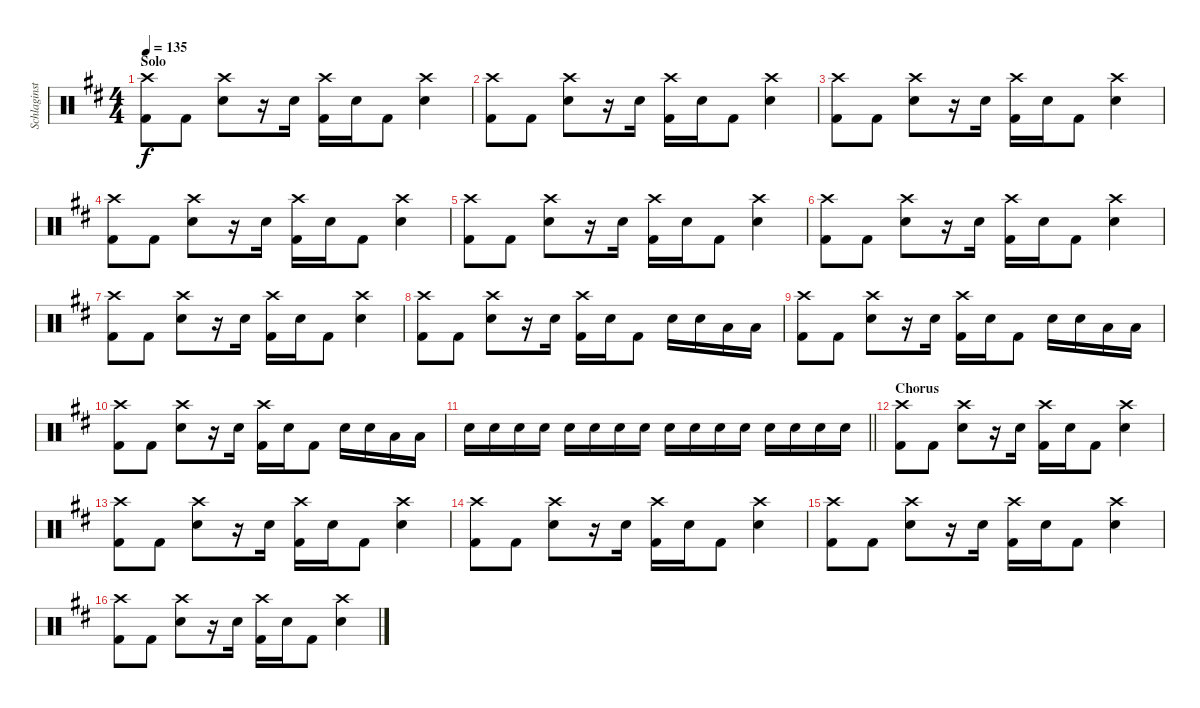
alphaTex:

\track ("Schlaginstrumente - Auswahl" "Schlaginst") {instrument percussion}
\staff {score}
\articulation defaults
\ts (4 4)
\section ("" "Solo")
\tempo 135
\clef neutral
\ks d
("Crash high (hit)" "Kick (hit) 2").8{dy f} "Kick (hit) 2".8 ("Crash high (hit)" "Snare (hit) 2").8 r.16 "Snare (hit) 2".16 ("Crash high (hit)" "Kick (hit) 2").16 "Snare (hit) 2".16 "Kick (hit) 2".8 ("Crash high (hit)" "Snare (hit) 2").4 |
("Crash high (hit)" "Kick (hit) 2").8 "Kick (hit) 2".8 ("Crash high (hit)" "Snare (hit) 2").8 r.16 "Snare (hit) 2".16 ("Crash high (hit)" "Kick (hit) 2").16 "Snare (hit) 2".16 "Kick (hit) 2".8 ("Crash high (hit)" "Snare (hit) 2").4 |
("Crash high (hit)" "Kick (hit) 2").8 "Kick (hit) 2".8 ("Crash high (hit)" "Snare (hit) 2").8 r.16 "Snare (hit) 2".16 ("Crash high (hit)" "Kick (hit) 2").16 "Snare (hit) 2".16 "Kick (hit) 2".8 ("Crash high (hit)" "Snare (hit) 2").4 |
("Crash high (hit)" "Kick (hit) 2").8 "Kick (hit) 2".8 ("Crash high (hit)" "Snare (hit) 2").8 r.16 "Snare (hit) 2".16 ("Crash high (hit)" "Kick (hit) 2").16 "Snare (hit) 2".16 "Kick (hit) 2".8 ("Crash high (hit)" "Snare (hit) 2").4 |
("Crash high (hit)" "Kick (hit) 2").8 "Kick (hit) 2".8 ("Crash high (hit)" "Snare (hit) 2").8 r.16 "Snare (hit) 2".16 ("Crash high (hit)" "Kick (hit) 2").16 "Snare (hit) 2".16 "Kick (hit) 2".8 ("Crash high (hit)" "Snare (hit) 2").4 |
("Crash high (hit)" "Kick (hit) 2").8 "Kick (hit) 2".8 ("Crash high (hit)" "Snare (hit) 2").8 r.16 "Snare (hit) 2".16 ("Crash high (hit)" "Kick (hit) 2").16 "Snare (hit) 2".16 "Kick (hit) 2".8 ("Crash high (hit)" "Snare (hit) 2").4 |
("Crash high (hit)" "Kick (hit) 2").8 "Kick (hit) 2".8 ("Crash high (hit)" "Snare (hit) 2").8 r.16 "Snare (hit) 2".16 ("Crash high (hit)" "Kick (hit) 2").16 "Snare (hit) 2".16 "Kick (hit) 2".8 ("Crash high (hit)" "Snare (hit) 2").4 |
("Crash high (hit)" "Kick (hit) 2").8 "Kick (hit) 2".8 ("Crash high (hit)" "Snare (hit) 2").8 r.16 "Snare (hit) 2".16 ("Crash high (hit)" "Kick (hit) 2").16 "Snare (hit) 2".16 "Kick (hit) 2".8 "Snare (hit) 2".16 "Snare (hit) 2".16 "Low Tom (hit)".16 "Low Tom (hit)".16 |
("Crash high (hit)" "Kick (hit) 2").8 "Kick (hit) 2".8 ("Crash high (hit)" "Snare (hit) 2").8 r.16 "Snare (hit) 2".16 ("Crash high (hit)" "Kick (hit) 2").16 "Snare (hit) 2".16 "Kick (hit) 2".8 "Snare (hit) 2".16 "Snare (hit) 2".16 "Low Tom (hit)".16 "Low Tom (hit)".16 |
("Crash high (hit)" "Kick (hit) 2").8 "Kick (hit) 2".8 ("Crash high (hit)" "Snare (hit) 2").8 r.16 "Snare (hit) 2".16 ("Crash high (hit)" "Kick (hit) 2").16 "Snare (hit) 2".16 "Kick (hit) 2".8 "Snare (hit) 2".16 "Snare (hit) 2".16 "Low Tom (hit)".16 "Low Tom (hit)".16 |
\barLineRight lightlight "Snare (hit) 2".16 "Snare (hit) 2".16 "Snare (hit) 2".16 "Snare (hit) 2".16 "Snare (hit) 2".16 "Snare (hit) 2".16 "Snare (hit) 2".16 "Snare (hit) 2".16 "Snare (hit) 2".16 "Snare (hit) 2".16 "Snare (hit) 2".16 "Snare (hit) 2".16 "Snare (hit) 2".16 "Snare (hit) 2".16 "Snare (hit) 2".16 "Snare (hit) 2".16
|
\section ("" "Chorus")
("Crash high (hit)" "Kick (hit) 2").8 "Kick (hit) 2".8 ("Crash high (hit)" "Snare (hit) 2").8 r.16 "Snare (hit) 2".16 ("Crash high (hit)" "Kick (hit) 2").16 "Snare (hit) 2".16 "Kick (hit) 2".8 ("Crash high (hit)" "Snare (hit) 2").4 |
("Crash high (hit)" "Kick (hit) 2").8 "Kick (hit) 2".8 ("Crash high (hit)" "Snare (hit) 2").8 r.16 "Snare (hit) 2".16 ("Crash high (hit)" "Kick (hit) 2").16 "Snare (hit) 2".16 "Kick (hit) 2".8 ("Crash high (hit)" "Snare (hit) 2").4 |
("Crash high (hit)" "Kick (hit) 2").8 "Kick (hit) 2".8 ("Crash high (hit)" "Snare (hit) 2").8 r.16 "Snare (hit) 2".16 ("Crash high (hit)" "Kick (hit) 2").16 "Snare (hit) 2".16 "Kick (hit) 2".8 ("Crash high (hit)" "Snare (hit) 2").4 |
("Crash high (hit)" "Kick (hit) 2").8 "Kick (hit) 2".8 ("Crash high (hit)" "Snare (hit) 2").8 r.16 "Snare (hit) 2".16 ("Crash high (hit)" "Kick (hit) 2").16 "Snare (hit) 2".16 "Kick (hit) 2".8 ("Crash high (hit)" "Snare (hit) 2").4 |
("Crash high (hit)" "Kick (hit) 2").8 "Kick (hit) 2".8 ("Crash high (hit)" "Snare (hit) 2").8 r.16 "Snare (hit) 2".16 ("Crash high (hit)" "Kick (hit) 2").16 "Snare (hit) 2".16 "Kick (hit) 2".8 ("Crash high (hit)" "Snare (hit) 2").4
